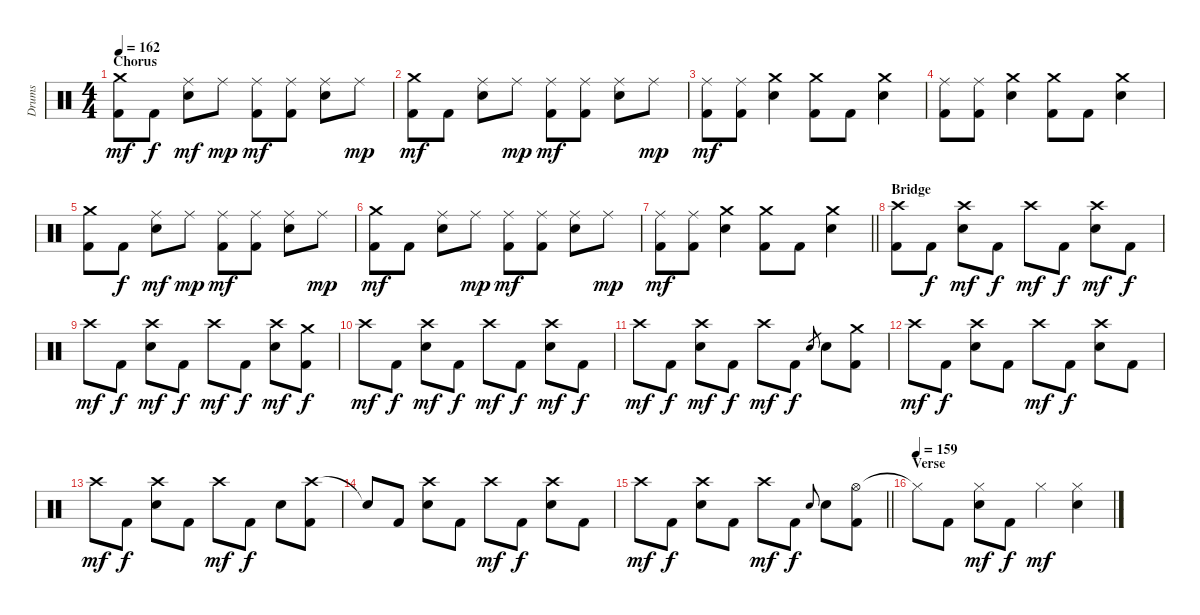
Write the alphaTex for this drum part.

\track ("Drums" "Drums") {instrument percussion}
\staff {score}
\articulation defaults
\ts (4 4)
\section ("" "Chorus")
\tempo 162
\clef neutral
\ks c
("Crash medium (hit)" "Kick (hit) 2").8{dy mf} "Kick (hit) 2".8{dy f} ("Ride (middle)" "Electric Snare (hit)").8{dy mf} "Ride (middle)".8{dy mp} ("Ride (middle)" "Kick (hit) 2").8{dy mf} ("Ride (middle)" "Kick (hit) 2").8 ("Ride (middle)" "Electric Snare (hit)").8 "Ride (middle)".8{dy mp} |
("Crash medium (hit)" "Kick (hit) 2").8{dy mf} "Kick (hit) 2".8 ("Ride (middle)" "Electric Snare (hit)").8 "Ride (middle)".8{dy mp} ("Ride (middle)" "Kick (hit) 2").8{dy mf} ("Ride (middle)" "Kick (hit) 2").8 ("Ride (middle)" "Electric Snare (hit)").8 "Ride (middle)".8{dy mp} |
("Ride (middle)" "Kick (hit) 2").8{dy mf} ("Ride (middle)" "Kick (hit) 2").8 ("Crash medium (hit)" "Electric Snare (hit)").4 ("Crash medium (hit)" "Kick (hit) 2").8 "Kick (hit) 2".8 ("Crash medium (hit)" "Electric Snare (hit)").4 |
("Ride (middle)" "Kick (hit) 2").8 ("Ride (middle)" "Kick (hit) 2").8 ("Crash medium (hit)" "Electric Snare (hit)").4 ("Crash medium (hit)" "Kick (hit) 2").8 "Kick (hit) 2".8 ("Crash medium (hit)" "Electric Snare (hit)").4 |
("Crash medium (hit)" "Kick (hit) 2").8 "Kick (hit) 2".8{dy f} ("Ride (middle)" "Electric Snare (hit)").8{dy mf} "Ride (middle)".8{dy mp} ("Ride (middle)" "Kick (hit) 2").8{dy mf} ("Ride (middle)" "Kick (hit) 2").8 ("Ride (middle)" "Electric Snare (hit)").8 "Ride (middle)".8{dy mp} |
("Crash medium (hit)" "Kick (hit) 2").8{dy mf} "Kick (hit) 2".8 ("Ride (middle)" "Electric Snare (hit)").8 "Ride (middle)".8{dy mp} ("Ride (middle)" "Kick (hit) 2").8{dy mf} ("Ride (middle)" "Kick (hit) 2").8 ("Ride (middle)" "Electric Snare (hit)").8 "Ride (middle)".8{dy mp} |
\barLineRight lightlight
("Ride (middle)" "Kick (hit) 2").8{dy mf} ("Ride (middle)" "Kick (hit) 2").8 ("Crash medium (hit)" "Electric Snare (hit)").4 ("Crash medium (hit)" "Kick (hit) 2").8 "Kick (hit) 2".8 ("Crash medium (hit)" "Electric Snare (hit)").4 |
\section ("" "Bridge")
("Crash high (hit)" "Kick (hit) 2").8 "Kick (hit) 2".8{dy f} ("Crash high (hit)" "Electric Snare (hit)").8{dy mf} "Kick (hit) 2".8{dy f} "Crash high (hit)".8{dy mf} "Kick (hit) 2".8{dy f} ("Crash high (hit)" "Electric Snare (hit)").8{dy mf} "Kick (hit) 2".8{dy f} |
"Crash high (hit)".8{dy mf} "Kick (hit) 2".8{dy f} ("Crash high (hit)" "Electric Snare (hit)").8{dy mf} "Kick (hit) 2".8{dy f} "Crash high (hit)".8{dy mf} "Kick (hit) 2".8{dy f} ("Crash high (hit)" "Electric Snare (hit)").8{dy mf} ("Crash medium (hit)" "Kick (hit) 2").8{dy f} |
"Crash high (hit)".8{dy mf} "Kick (hit) 2".8{dy f} ("Crash high (hit)" "Electric Snare (hit)").8{dy mf} "Kick (hit) 2".8{dy f} "Crash high (hit)".8{dy mf} "Kick (hit) 2".8{dy f} ("Crash high (hit)" "Electric Snare (hit)").8{dy mf} "Kick (hit) 2".8{dy f} |
"Crash high (hit)".8{dy mf} "Kick (hit) 2".8{dy f} ("Crash high (hit)" "Electric Snare (hit)").8{dy mf} "Kick (hit) 2".8{dy f} "Crash high (hit)".8{dy mf} "Kick (hit) 2".8{dy f} "Electric Snare (hit)".8{gr} "Electric Snare (hit)".8 ("Crash medium (hit)" "Kick (hit) 2").8 |
"Crash high (hit)".8{dy mf} "Kick (hit) 2".8{dy f} ("Crash high (hit)" "Electric Snare (hit)").8 "Kick (hit) 2".8 "Crash high (hit)".8{dy mf} "Kick (hit) 2".8{dy f} ("Crash high (hit)" "Electric Snare (hit)").8 "Kick (hit) 2".8 |
"Crash high (hit)".8{dy mf} "Kick (hit) 2".8{dy f} ("Crash high (hit)" "Electric Snare (hit)").8 "Kick (hit) 2".8 "Crash high (hit)".8{dy mf} "Kick (hit) 2".8{dy f} "Electric Snare (hit)".8 ("Crash high (hit)" "Kick (hit) 2").8 |
"Snare (hit)"{t}.8 "Kick (hit) 2".8 ("Crash high (hit)" "Electric Snare (hit)").8 "Kick (hit) 2".8 "Crash high (hit)".8{dy mf} "Kick (hit) 2".8{dy f} ("Crash high (hit)" "Electric Snare (hit)").8 "Kick (hit) 2".8 |
\barLineRight lightlight "Crash high (hit)".8{dy mf} "Kick (hit) 2".8{dy f}
("Crash high (hit)" "Electric Snare (hit)").8 "Kick (hit) 2".8 "Crash high (hit)".8{dy mf} "Kick (hit) 2".8{dy f} "Electric Snare (hit)".8{gr onbeat} "Electric Snare (hit)".8 ("Hi-Hat (open)" "Kick (hit) 2").8 |
\section ("" "Verse")
\tempo (159)
"Hi-Hat (closed)"{t}.8 "Kick (hit) 2".8 ("Hi-Hat (closed)" "Electric Snare (hit)").8{dy mf} "Kick (hit) 2".8{dy f} "Hi-Hat (closed)".4{dy mf} ("Hi-Hat (closed)" "Electric Snare (hit)").4
